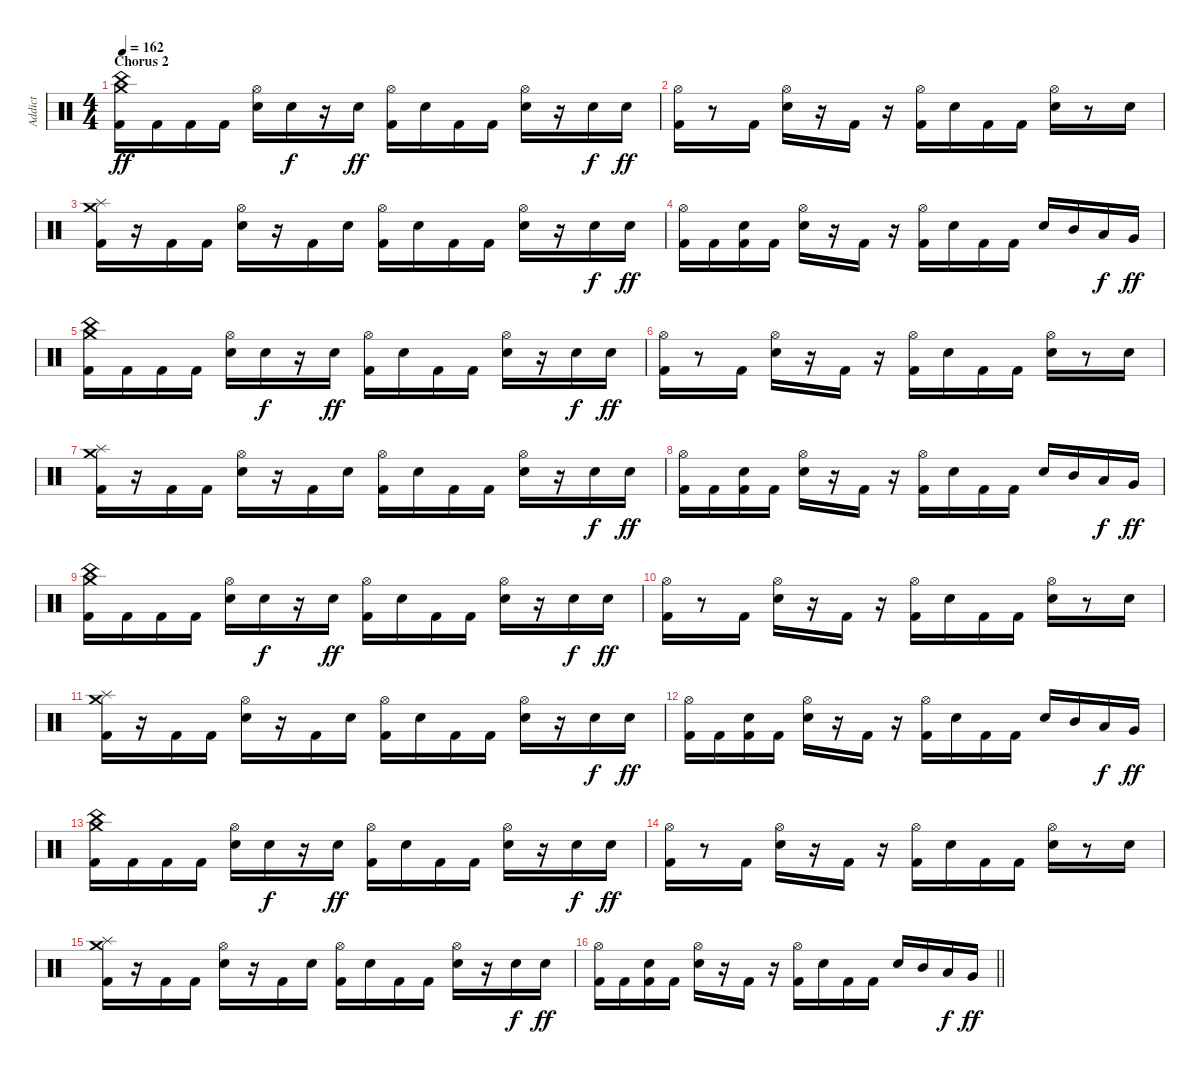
\track ("Addict" "Addict") {instrument percussion}
\staff {score}
\articulation defaults
\ts (4 4)
\section ("" "Chorus 2")
\tempo 162
\clef neutral
\ks c
("Kick (hit) 2" "Crash medium (hit)" "China (hit)").16{dy ff} "Kick (hit) 2".16 "Kick (hit) 2".16 "Kick (hit) 2".16 ("Snare (hit) 2" "Hi-Hat (open)").16 "Snare (hit) 2".16{dy f} r.16 "Snare (hit) 2".16{dy ff} ("Kick (hit) 2" "Hi-Hat (open)").16 "Snare (hit) 2".16 "Kick (hit) 2".16 "Kick (hit) 2".16 ("Snare (hit) 2" "Hi-Hat (open)").16 r.16 "Snare (hit) 2".16{dy f} "Snare (hit) 2".16{dy ff} |
("Kick (hit) 2" "Hi-Hat (open)").16 r.8 "Kick (hit) 2".16 ("Snare (hit) 2" "Hi-Hat (open)").16 r.16 "Kick (hit) 2".16 r.16 ("Kick (hit) 2" "Hi-Hat (open)").16 "Snare (hit) 2".16 "Kick (hit) 2".16 "Kick (hit) 2".16 ("Snare (hit) 2" "Hi-Hat (open)").16 r.8 "Snare (hit) 2".16 |
("Kick (hit) 2" "Crash medium (hit)" "Splash (hit)").16 r.16 "Kick (hit) 2".16 "Kick (hit) 2".16 ("Snare (hit) 2" "Hi-Hat (open)").16 r.16 "Kick (hit) 2".16 "Snare (hit) 2".16 ("Kick (hit) 2" "Hi-Hat (open)").16 "Snare (hit) 2".16 "Kick (hit) 2".16 "Kick (hit) 2".16 ("Snare (hit) 2" "Hi-Hat (open)").16 r.16 "Snare (hit) 2".16{dy f} "Snare (hit) 2".16{dy ff} |
("Kick (hit) 2" "Hi-Hat (open)").16 "Kick (hit) 2".16 ("Kick (hit) 2" "Snare (hit) 2").16 "Kick (hit) 2".16 ("Snare (hit) 2" "Hi-Hat (open)").16 r.16 "Kick (hit) 2".16 r.16 ("Kick (hit) 2" "Hi-Hat (open)").16 "Snare (hit) 2".16 "Kick (hit) 2".16 "Kick (hit) 2".16 "Snare (hit) 2".16 "Mid Tom (hit)".16 "Low Tom (hit)".16{dy f} "Very Low Tom (hit)".16{dy ff} |
("Kick (hit) 2" "Crash medium (hit)" "China (hit)").16 "Kick (hit) 2".16 "Kick (hit) 2".16 "Kick (hit) 2".16 ("Snare (hit) 2" "Hi-Hat (open)").16 "Snare (hit) 2".16{dy f} r.16 "Snare (hit) 2".16{dy ff} ("Kick (hit) 2" "Hi-Hat (open)").16 "Snare (hit) 2".16 "Kick (hit) 2".16 "Kick (hit) 2".16 ("Snare (hit) 2" "Hi-Hat (open)").16 r.16 "Snare (hit) 2".16{dy f} "Snare (hit) 2".16{dy ff} |
("Kick (hit) 2" "Hi-Hat (open)").16 r.8 "Kick (hit) 2".16 ("Snare (hit) 2" "Hi-Hat (open)").16 r.16 "Kick (hit) 2".16 r.16 ("Kick (hit) 2" "Hi-Hat (open)").16 "Snare (hit) 2".16 "Kick (hit) 2".16 "Kick (hit) 2".16 ("Snare (hit) 2" "Hi-Hat (open)").16 r.8 "Snare (hit) 2".16 |
("Kick (hit) 2" "Crash medium (hit)" "Splash (hit)").16 r.16 "Kick (hit) 2".16 "Kick (hit) 2".16 ("Snare (hit) 2" "Hi-Hat (open)").16 r.16 "Kick (hit) 2".16 "Snare (hit) 2".16 ("Kick (hit) 2" "Hi-Hat (open)").16 "Snare (hit) 2".16 "Kick (hit) 2".16 "Kick (hit) 2".16 ("Snare (hit) 2" "Hi-Hat (open)").16 r.16 "Snare (hit) 2".16{dy f} "Snare (hit) 2".16{dy ff} |
("Kick (hit) 2" "Hi-Hat (open)").16 "Kick (hit) 2".16 ("Kick (hit) 2" "Snare (hit) 2").16 "Kick (hit) 2".16 ("Snare (hit) 2" "Hi-Hat (open)").16 r.16 "Kick (hit) 2".16 r.16 ("Kick (hit) 2" "Hi-Hat (open)").16 "Snare (hit) 2".16 "Kick (hit) 2".16 "Kick (hit) 2".16 "Snare (hit) 2".16 "Mid Tom (hit)".16 "Low Tom (hit)".16{dy f} "Very Low Tom (hit)".16{dy ff} |
("Kick (hit) 2" "Crash medium (hit)" "China (hit)").16 "Kick (hit) 2".16 "Kick (hit) 2".16 "Kick (hit) 2".16 ("Snare (hit) 2" "Hi-Hat (open)").16 "Snare (hit) 2".16{dy f} r.16 "Snare (hit) 2".16{dy ff} ("Kick (hit) 2" "Hi-Hat (open)").16 "Snare (hit) 2".16 "Kick (hit) 2".16 "Kick (hit) 2".16 ("Snare (hit) 2" "Hi-Hat (open)").16 r.16 "Snare (hit) 2".16{dy f} "Snare (hit) 2".16{dy ff} |
("Kick (hit) 2" "Hi-Hat (open)").16 r.8 "Kick (hit) 2".16 ("Snare (hit) 2" "Hi-Hat (open)").16 r.16 "Kick (hit) 2".16 r.16 ("Kick (hit) 2" "Hi-Hat (open)").16 "Snare (hit) 2".16 "Kick (hit) 2".16 "Kick (hit) 2".16 ("Snare (hit) 2" "Hi-Hat (open)").16 r.8 "Snare (hit) 2".16 |
("Kick (hit) 2" "Crash medium (hit)" "Splash (hit)").16 r.16 "Kick (hit) 2".16 "Kick (hit) 2".16 ("Snare (hit) 2" "Hi-Hat (open)").16 r.16 "Kick (hit) 2".16 "Snare (hit) 2".16 ("Kick (hit) 2" "Hi-Hat (open)").16 "Snare (hit) 2".16 "Kick (hit) 2".16 "Kick (hit) 2".16 ("Snare (hit) 2" "Hi-Hat (open)").16 r.16 "Snare (hit) 2".16{dy f} "Snare (hit) 2".16{dy ff} |
("Kick (hit) 2" "Hi-Hat (open)").16 "Kick (hit) 2".16 ("Kick (hit) 2" "Snare (hit) 2").16 "Kick (hit) 2".16 ("Snare (hit) 2" "Hi-Hat (open)").16 r.16 "Kick (hit) 2".16 r.16 ("Kick (hit) 2" "Hi-Hat (open)").16 "Snare (hit) 2".16 "Kick (hit) 2".16 "Kick (hit) 2".16 "Snare (hit) 2".16 "Mid Tom (hit)".16 "Low Tom (hit)".16{dy f} "Very Low Tom (hit)".16{dy ff} |
("Kick (hit) 2" "Crash medium (hit)" "China (hit)").16 "Kick (hit) 2".16 "Kick (hit) 2".16 "Kick (hit) 2".16 ("Snare (hit) 2" "Hi-Hat (open)").16 "Snare (hit) 2".16{dy f} r.16 "Snare (hit) 2".16{dy ff} ("Kick (hit) 2" "Hi-Hat (open)").16 "Snare (hit) 2".16 "Kick (hit) 2".16 "Kick (hit) 2".16 ("Snare (hit) 2" "Hi-Hat (open)").16 r.16 "Snare (hit) 2".16{dy f} "Snare (hit) 2".16{dy ff} |
("Kick (hit) 2" "Hi-Hat (open)").16 r.8 "Kick (hit) 2".16 ("Snare (hit) 2" "Hi-Hat (open)").16 r.16 "Kick (hit) 2".16 r.16 ("Kick (hit) 2" "Hi-Hat (open)").16 "Snare (hit) 2".16 "Kick (hit) 2".16 "Kick (hit) 2".16 ("Snare (hit) 2" "Hi-Hat (open)").16 r.8 "Snare (hit) 2".16 |
("Kick (hit) 2" "Crash medium (hit)" "Splash (hit)").16 r.16 "Kick (hit) 2".16 "Kick (hit) 2".16 ("Snare (hit) 2" "Hi-Hat (open)").16 r.16 "Kick (hit) 2".16 "Snare (hit) 2".16 ("Kick (hit) 2" "Hi-Hat (open)").16 "Snare (hit) 2".16 "Kick (hit) 2".16 "Kick (hit) 2".16 ("Snare (hit) 2" "Hi-Hat (open)").16 r.16 "Snare (hit) 2".16{dy f} "Snare (hit) 2".16{dy ff} |
\barLineRight lightlight
("Kick (hit) 2" "Hi-Hat (open)").16 "Kick (hit) 2".16 ("Kick (hit) 2" "Snare (hit) 2").16 "Kick (hit) 2".16 ("Snare (hit) 2" "Hi-Hat (open)").16 r.16 "Kick (hit) 2".16 r.16 ("Kick (hit) 2" "Hi-Hat (open)").16 "Snare (hit) 2".16 "Kick (hit) 2".16 "Kick (hit) 2".16 "Snare (hit) 2".16 "Mid Tom (hit)".16 "Low Tom (hit)".16{dy f} "Very Low Tom (hit)".16{dy ff}
